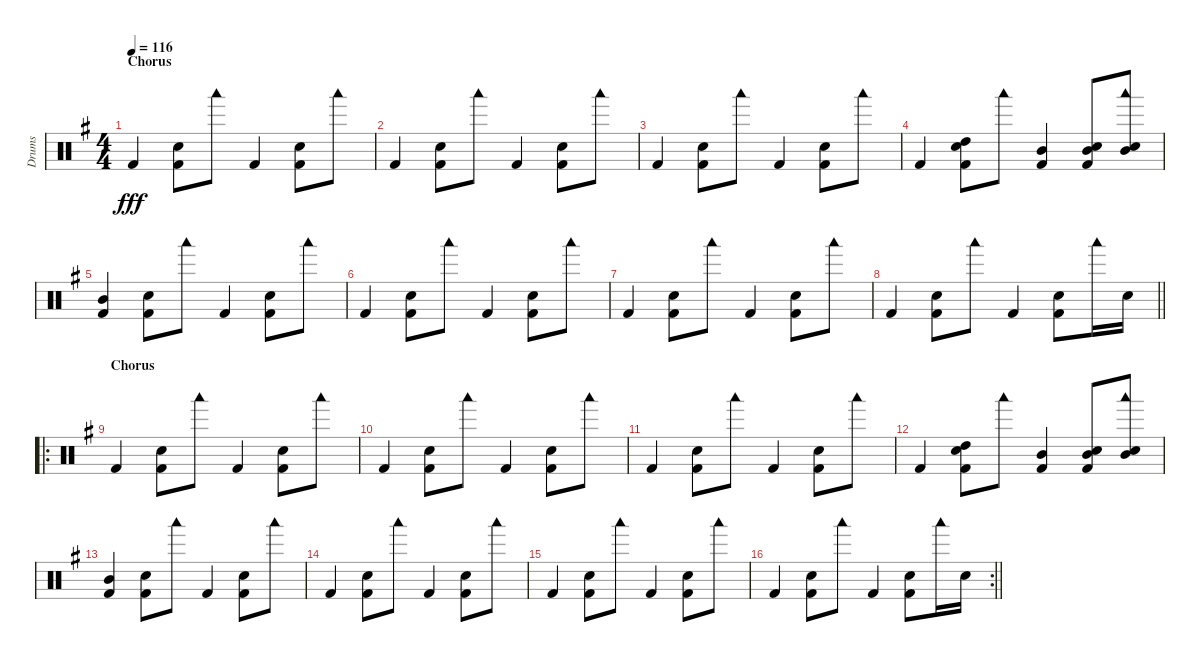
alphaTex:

\track ("Drums" "Drums") {instrument percussion}
\staff {score}
\articulation defaults
\ts (4 4)
\section ("" "Chorus")
\tempo 116
\clef neutral
\ks g "Kick (hit) 2".4{dy fff}
("Electric Snare (hit)" "Kick (hit) 2").8 "Woodblock low (hit)".8 "Kick (hit) 2".4 ("Electric Snare (hit)" "Kick (hit) 2").8 "Woodblock low (hit)".8 |
"Kick (hit) 2".4 ("Electric Snare (hit)" "Kick (hit) 2").8 "Woodblock low (hit)".8 "Kick (hit) 2".4 ("Electric Snare (hit)" "Kick (hit) 2").8 "Woodblock low (hit)".8 |
"Kick (hit) 2".4 ("Electric Snare (hit)" "Kick (hit) 2").8 "Woodblock low (hit)".8 "Kick (hit) 2".4 ("Electric Snare (hit)" "Kick (hit) 2").8 "Woodblock low (hit)".8 |
"Kick (hit) 2".4 ("High Tom (hit)" "Electric Snare (hit)" "Kick (hit) 2").8 "Woodblock low (hit)".8 ("Mid Tom (hit)" "Kick (hit) 2").4 ("Mid Tom (hit)" "Electric Snare (hit)" "Kick (hit) 2").8 ("Mid Tom (hit)" "Electric Snare (hit)" "Woodblock low (hit)").8 |
("Mid Tom (hit)" "Kick (hit) 2").4 ("Electric Snare (hit)" "Kick (hit) 2").8 "Woodblock low (hit)".8 "Kick (hit) 2".4 ("Electric Snare (hit)" "Kick (hit) 2").8 "Woodblock low (hit)".8 |
"Kick (hit) 2".4 ("Electric Snare (hit)" "Kick (hit) 2").8 "Woodblock low (hit)".8 "Kick (hit) 2".4 ("Electric Snare (hit)" "Kick (hit) 2").8 "Woodblock low (hit)".8 |
"Kick (hit) 2".4 ("Electric Snare (hit)" "Kick (hit) 2").8 "Woodblock low (hit)".8 "Kick (hit) 2".4 ("Electric Snare (hit)" "Kick (hit) 2").8 "Woodblock low (hit)".8 |
\barLineRight lightlight "Kick (hit) 2".4
("Electric Snare (hit)" "Kick (hit) 2").8 "Woodblock low (hit)".8 "Kick (hit) 2".4 ("Electric Snare (hit)" "Kick (hit) 2").8 "Woodblock low (hit)".16 "Electric Snare (hit)".16 |
\ro
\section ("" "Chorus")
"Kick (hit) 2".4 ("Electric Snare (hit)" "Kick (hit) 2").8 "Woodblock low (hit)".8 "Kick (hit) 2".4 ("Electric Snare (hit)" "Kick (hit) 2").8 "Woodblock low (hit)".8 |
"Kick (hit) 2".4 ("Electric Snare (hit)" "Kick (hit) 2").8 "Woodblock low (hit)".8 "Kick (hit) 2".4 ("Electric Snare (hit)" "Kick (hit) 2").8 "Woodblock low (hit)".8 |
"Kick (hit) 2".4 ("Electric Snare (hit)" "Kick (hit) 2").8 "Woodblock low (hit)".8 "Kick (hit) 2".4 ("Electric Snare (hit)" "Kick (hit) 2").8 "Woodblock low (hit)".8 |
"Kick (hit) 2".4 ("High Tom (hit)" "Electric Snare (hit)" "Kick (hit) 2").8 "Woodblock low (hit)".8 ("Mid Tom (hit)" "Kick (hit) 2").4 ("Mid Tom (hit)" "Electric Snare (hit)" "Kick (hit) 2").8 ("Mid Tom (hit)" "Electric Snare (hit)" "Woodblock low (hit)").8 |
("Mid Tom (hit)" "Kick (hit) 2").4 ("Electric Snare (hit)" "Kick (hit) 2").8 "Woodblock low (hit)".8 "Kick (hit) 2".4 ("Electric Snare (hit)" "Kick (hit) 2").8 "Woodblock low (hit)".8 |
"Kick (hit) 2".4 ("Electric Snare (hit)" "Kick (hit) 2").8 "Woodblock low (hit)".8 "Kick (hit) 2".4 ("Electric Snare (hit)" "Kick (hit) 2").8 "Woodblock low (hit)".8 |
"Kick (hit) 2".4 ("Electric Snare (hit)" "Kick (hit) 2").8 "Woodblock low (hit)".8 "Kick (hit) 2".4 ("Electric Snare (hit)" "Kick (hit) 2").8 "Woodblock low (hit)".8 |
\rc 2
\barLineRight lightlight "Kick (hit) 2".4
("Electric Snare (hit)" "Kick (hit) 2").8 "Woodblock low (hit)".8 "Kick (hit) 2".4 ("Electric Snare (hit)" "Kick (hit) 2").8 "Woodblock low (hit)".16 "Electric Snare (hit)".16
